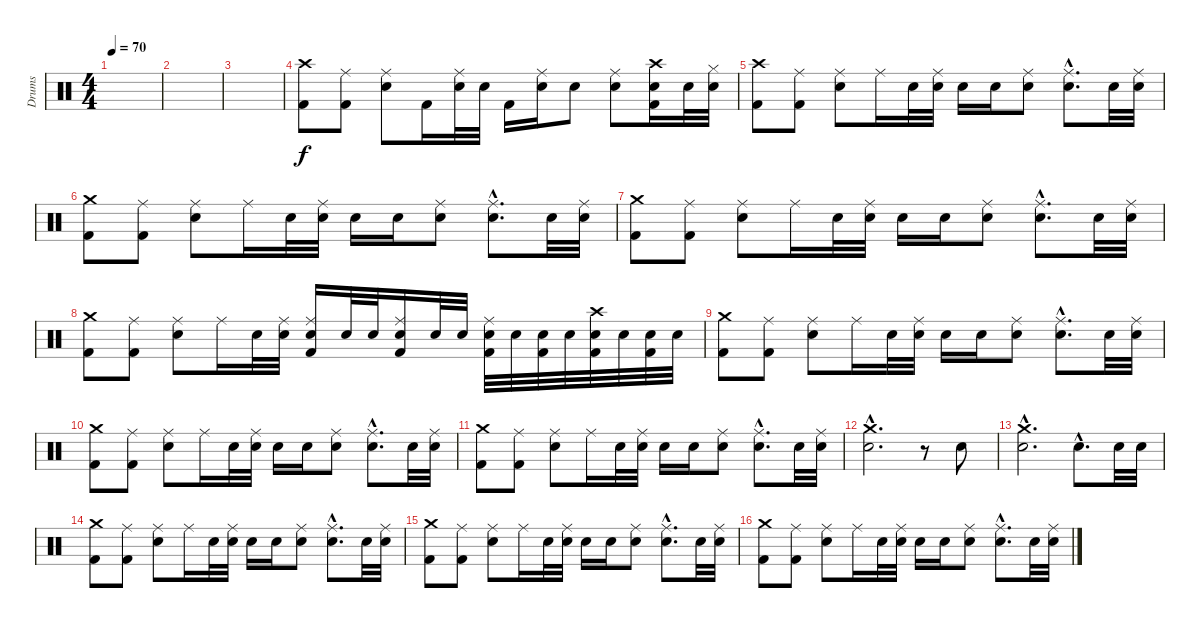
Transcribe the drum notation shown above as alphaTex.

\track ("Drums" "Drums") {instrument percussion}
\staff {score}
\articulation defaults
\ts (4 4)
\tempo 70
\clef neutral
\ks c
|
|
|
("Crash high (hit)" "Kick (hit) 2").8 ("Ride (middle)" "Kick (hit) 2").8 ("Ride (middle)" "Electric Snare (hit)").8 "Kick (hit) 2".16 ("Ride (middle)" "Electric Snare (hit)").32 "Electric Snare (hit)".32 "Kick (hit) 2".16 ("Ride (middle)" "Electric Snare (hit)").16 "Electric Snare (hit)".8 ("Ride (middle)" "Electric Snare (hit)").8 ("Crash high (hit)" "Electric Snare (hit)" "Kick (hit) 2").16 "Electric Snare (hit)".32 ("Hi-Hat (closed)" "Electric Snare (hit)").32 |
("Crash high (hit)" "Kick (hit) 2").8 ("Ride (middle)" "Kick (hit) 2").8 ("Ride (middle)" "Electric Snare (hit)").8 "Ride (middle)".16 "Electric Snare (hit)".32 ("Ride (middle)" "Electric Snare (hit)").32 "Electric Snare (hit)".16 "Electric Snare (hit)".16 ("Ride (middle)" "Electric Snare (hit)").8 ("Ride (middle)"{hac} "Electric Snare (hit)"{hac}).8{d} "Electric Snare (hit)".32 ("Ride (middle)" "Electric Snare (hit)").32 |
("Crash medium (hit)" "Kick (hit) 2").8 ("Ride (middle)" "Kick (hit) 2").8 ("Ride (middle)" "Electric Snare (hit)").8 "Ride (middle)".16 "Electric Snare (hit)".32 ("Ride (middle)" "Electric Snare (hit)").32 "Electric Snare (hit)".16 "Electric Snare (hit)".16 ("Ride (middle)" "Electric Snare (hit)").8 ("Ride (middle)"{hac} "Electric Snare (hit)"{hac}).8{d} "Electric Snare (hit)".32 ("Ride (middle)" "Electric Snare (hit)").32 |
("Crash medium (hit)" "Kick (hit) 2").8 ("Ride (middle)" "Kick (hit) 2").8 ("Ride (middle)" "Electric Snare (hit)").8 "Ride (middle)".16 "Electric Snare (hit)".32 ("Ride (middle)" "Electric Snare (hit)").32 "Electric Snare (hit)".16 "Electric Snare (hit)".16 ("Ride (middle)" "Electric Snare (hit)").8 ("Ride (middle)"{hac} "Electric Snare (hit)"{hac}).8{d} "Electric Snare (hit)".32 ("Ride (middle)" "Electric Snare (hit)").32 |
("Crash medium (hit)" "Kick (hit) 2").8 ("Ride (middle)" "Kick (hit) 2").8 ("Ride (middle)" "Electric Snare (hit)").8 "Ride (middle)".16 "Electric Snare (hit)".32 ("Ride (middle)" "Electric Snare (hit)").32 ("Ride (middle)" "Electric Snare (hit)" "Kick (hit) 2").16 "Electric Snare (hit)".32 "Electric Snare (hit)".32 ("Ride (middle)" "Electric Snare (hit)" "Kick (hit) 2").16 "Electric Snare (hit)".32 "Electric Snare (hit)".32 ("Ride (middle)" "Electric Snare (hit)" "Kick (hit) 2").32 "Electric Snare (hit)".32 ("Electric Snare (hit)" "Kick (hit) 2").32 "Electric Snare (hit)".32 ("Crash high (hit)" "Electric Snare (hit)" "Kick (hit) 2").32 "Electric Snare (hit)".32 ("Electric Snare (hit)" "Kick (hit) 2").32 "Electric Snare (hit)".32 |
("Crash medium (hit)" "Kick (hit) 2").8 ("Ride (middle)" "Kick (hit) 2").8 ("Ride (middle)" "Electric Snare (hit)").8 "Ride (middle)".16 "Electric Snare (hit)".32 ("Ride (middle)" "Electric Snare (hit)").32 "Electric Snare (hit)".16 "Electric Snare (hit)".16 ("Ride (middle)" "Electric Snare (hit)").8 ("Ride (middle)"{hac} "Electric Snare (hit)"{hac}).8{d} "Electric Snare (hit)".32 ("Ride (middle)" "Electric Snare (hit)").32 |
("Crash medium (hit)" "Kick (hit) 2").8 ("Ride (middle)" "Kick (hit) 2").8 ("Ride (middle)" "Electric Snare (hit)").8 "Ride (middle)".16 "Electric Snare (hit)".32 ("Ride (middle)" "Electric Snare (hit)").32 "Electric Snare (hit)".16 "Electric Snare (hit)".16 ("Ride (middle)" "Electric Snare (hit)").8 ("Ride (middle)"{hac} "Electric Snare (hit)"{hac}).8{d} "Electric Snare (hit)".32 ("Ride (middle)" "Electric Snare (hit)").32 |
("Crash medium (hit)" "Kick (hit) 2").8 ("Ride (middle)" "Kick (hit) 2").8 ("Ride (middle)" "Electric Snare (hit)").8 "Ride (middle)".16 "Electric Snare (hit)".32 ("Ride (middle)" "Electric Snare (hit)").32 "Electric Snare (hit)".16 "Electric Snare (hit)".16 ("Ride (middle)" "Electric Snare (hit)").8 ("Ride (middle)"{hac} "Electric Snare (hit)"{hac}).8{d} "Electric Snare (hit)".32 ("Ride (middle)" "Electric Snare (hit)").32 |
("Crash medium (hit)"{hac} "Electric Snare (hit)"{hac}).2{d} r.8 "Electric Snare (hit)".8 |
("Crash medium (hit)"{hac} "Electric Snare (hit)"{hac}).2{d} "Electric Snare (hit)"{hac}.8{d} "Electric Snare (hit)".32 "Electric Snare (hit)".32 |
("Crash medium (hit)" "Kick (hit) 2").8 ("Ride (middle)" "Kick (hit) 2").8 ("Ride (middle)" "Electric Snare (hit)").8 "Ride (middle)".16 "Electric Snare (hit)".32 ("Ride (middle)" "Electric Snare (hit)").32 "Electric Snare (hit)".16 "Electric Snare (hit)".16 ("Ride (middle)" "Electric Snare (hit)").8 ("Ride (middle)"{hac} "Electric Snare (hit)"{hac}).8{d} "Electric Snare (hit)".32 ("Ride (middle)" "Electric Snare (hit)").32 |
("Crash medium (hit)" "Kick (hit) 2").8 ("Ride (middle)" "Kick (hit) 2").8 ("Ride (middle)" "Electric Snare (hit)").8 "Ride (middle)".16 "Electric Snare (hit)".32 ("Ride (middle)" "Electric Snare (hit)").32 "Electric Snare (hit)".16 "Electric Snare (hit)".16 ("Ride (middle)" "Electric Snare (hit)").8 ("Ride (middle)"{hac} "Electric Snare (hit)"{hac}).8{d} "Electric Snare (hit)".32 ("Ride (middle)" "Electric Snare (hit)").32 |
("Crash medium (hit)" "Kick (hit) 2").8 ("Ride (middle)" "Kick (hit) 2").8 ("Ride (middle)" "Electric Snare (hit)").8 "Ride (middle)".16 "Electric Snare (hit)".32 ("Ride (middle)" "Electric Snare (hit)").32 "Electric Snare (hit)".16 "Electric Snare (hit)".16 ("Ride (middle)" "Electric Snare (hit)").8 ("Ride (middle)"{hac} "Electric Snare (hit)"{hac}).8{d} "Electric Snare (hit)".32 ("Ride (middle)" "Electric Snare (hit)").32
